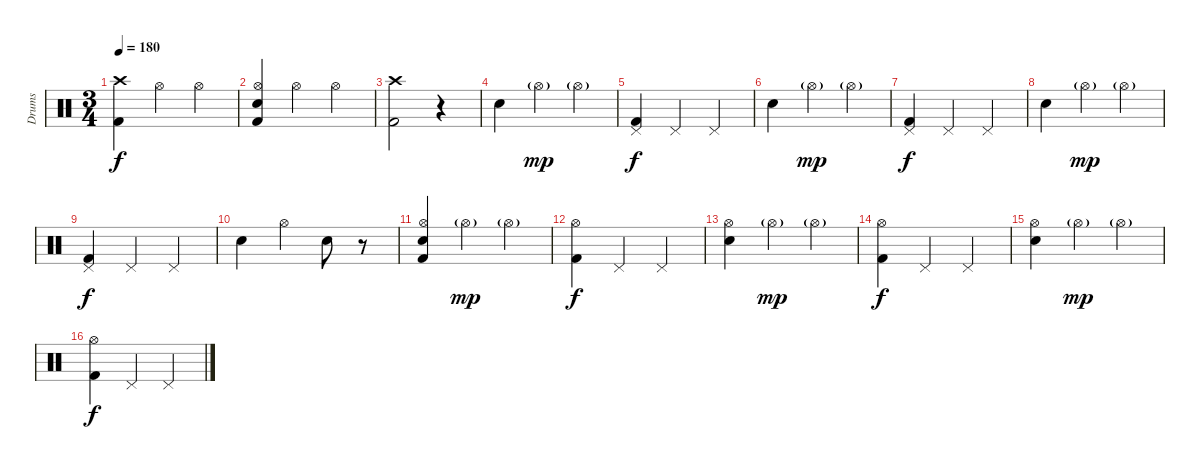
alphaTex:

\track ("Drums" "Drums") {instrument percussion}
\staff {score}
\articulation defaults
\ts (3 4)
\tempo 180
\clef neutral
\ks c
("Crash high (hit)" "Kick (hit) 2").4{dy f} "Hi-Hat (open)".4 "Hi-Hat (open)".4 |
("Snare (hit) 2" "Hi-Hat (open)" "Kick (hit) 2").4 "Hi-Hat (open)".4 "Hi-Hat (open)".4 |
("Crash high (hit)" "Kick (hit) 2").2 r.4 |
"Snare (hit) 2".4 "Hi-Hat (open)"{g}.4{dy mp} "Hi-Hat (open)"{g}.4 |
("Pedal Hi-Hat (hit)" "Kick (hit) 2").4{dy f} "Pedal Hi-Hat (hit)".4 "Pedal Hi-Hat (hit)".4 |
"Snare (hit) 2".4 "Hi-Hat (open)"{g}.4{dy mp} "Hi-Hat (open)"{g}.4 |
("Pedal Hi-Hat (hit)" "Kick (hit) 2").4{dy f} "Pedal Hi-Hat (hit)".4 "Pedal Hi-Hat (hit)".4 |
"Snare (hit) 2".4 "Hi-Hat (open)"{g}.4{dy mp} "Hi-Hat (open)"{g}.4 |
("Pedal Hi-Hat (hit)" "Kick (hit) 2").4{dy f} "Pedal Hi-Hat (hit)".4 "Pedal Hi-Hat (hit)".4 |
"Snare (hit) 2".4 "Hi-Hat (open)".4 "Snare (hit) 2".8 r.8 |
("Snare (hit) 2" "Hi-Hat (open)" "Kick (hit) 2").4 "Hi-Hat (open)"{g}.4{dy mp} "Hi-Hat (open)"{g}.4 |
("Hi-Hat (open)" "Kick (hit) 2").4{dy f} "Pedal Hi-Hat (hit)".4 "Pedal Hi-Hat (hit)".4 |
("Snare (hit) 2" "Hi-Hat (open)").4 "Hi-Hat (open)"{g}.4{dy mp} "Hi-Hat (open)"{g}.4 |
("Hi-Hat (open)" "Kick (hit) 2").4{dy f} "Pedal Hi-Hat (hit)".4 "Pedal Hi-Hat (hit)".4 |
("Snare (hit) 2" "Hi-Hat (open)").4 "Hi-Hat (open)"{g}.4{dy mp} "Hi-Hat (open)"{g}.4 |
("Hi-Hat (open)" "Kick (hit) 2").4{dy f} "Pedal Hi-Hat (hit)".4 "Pedal Hi-Hat (hit)".4
